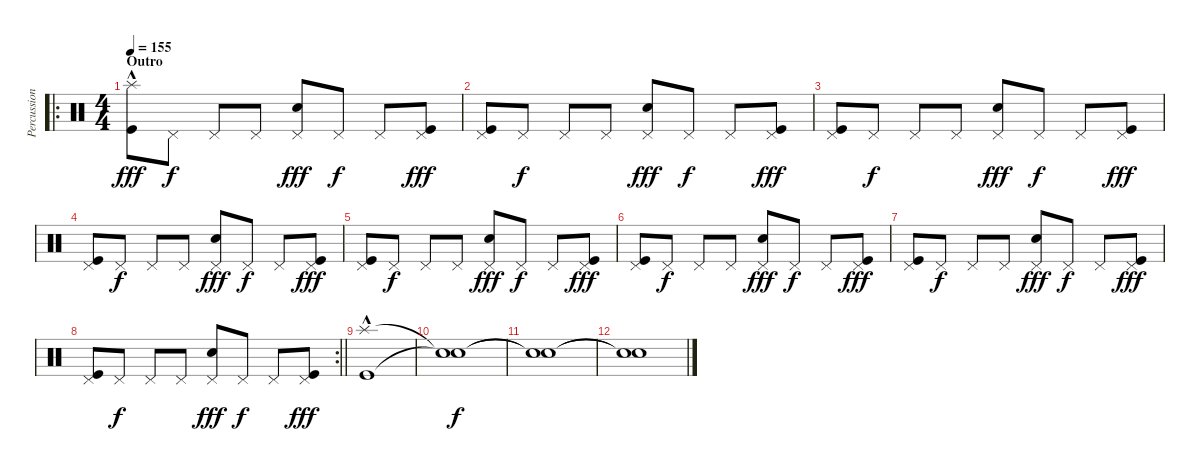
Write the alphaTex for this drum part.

\track ("Percussion" "Percussion") {instrument percussion}
\staff {score}
\articulation defaults
\ro
\ts (4 4)
\section ("" "Outro")
\tempo 155
\clef neutral
\ks c
("Splash (hit)"{hac} "Kick (hit)").8{dy fff} "Pedal Hi-Hat (hit)".8{dy f} "Pedal Hi-Hat (hit)".8 "Pedal Hi-Hat (hit)".8 ("Pedal Hi-Hat (hit)" "Snare (hit) 2").8{dy fff} "Pedal Hi-Hat (hit)".8{dy f} "Pedal Hi-Hat (hit)".8 ("Pedal Hi-Hat (hit)" "Kick (hit)").8{dy fff} |
("Pedal Hi-Hat (hit)" "Kick (hit)").8 "Pedal Hi-Hat (hit)".8{dy f} "Pedal Hi-Hat (hit)".8 "Pedal Hi-Hat (hit)".8 ("Pedal Hi-Hat (hit)" "Snare (hit) 2").8{dy fff} "Pedal Hi-Hat (hit)".8{dy f} "Pedal Hi-Hat (hit)".8 ("Pedal Hi-Hat (hit)" "Kick (hit)").8{dy fff} |
("Pedal Hi-Hat (hit)" "Kick (hit)").8 "Pedal Hi-Hat (hit)".8{dy f} "Pedal Hi-Hat (hit)".8 "Pedal Hi-Hat (hit)".8 ("Pedal Hi-Hat (hit)" "Snare (hit) 2").8{dy fff} "Pedal Hi-Hat (hit)".8{dy f} "Pedal Hi-Hat (hit)".8 ("Pedal Hi-Hat (hit)" "Kick (hit)").8{dy fff} |
("Pedal Hi-Hat (hit)" "Kick (hit)").8 "Pedal Hi-Hat (hit)".8{dy f} "Pedal Hi-Hat (hit)".8 "Pedal Hi-Hat (hit)".8 ("Pedal Hi-Hat (hit)" "Snare (hit) 2").8{dy fff} "Pedal Hi-Hat (hit)".8{dy f} "Pedal Hi-Hat (hit)".8 ("Pedal Hi-Hat (hit)" "Kick (hit)").8{dy fff} |
("Pedal Hi-Hat (hit)" "Kick (hit)").8 "Pedal Hi-Hat (hit)".8{dy f} "Pedal Hi-Hat (hit)".8 "Pedal Hi-Hat (hit)".8 ("Pedal Hi-Hat (hit)" "Snare (hit) 2").8{dy fff} "Pedal Hi-Hat (hit)".8{dy f} "Pedal Hi-Hat (hit)".8 ("Pedal Hi-Hat (hit)" "Kick (hit)").8{dy fff} |
("Pedal Hi-Hat (hit)" "Kick (hit)").8 "Pedal Hi-Hat (hit)".8{dy f} "Pedal Hi-Hat (hit)".8 "Pedal Hi-Hat (hit)".8 ("Pedal Hi-Hat (hit)" "Snare (hit) 2").8{dy fff} "Pedal Hi-Hat (hit)".8{dy f} "Pedal Hi-Hat (hit)".8 ("Pedal Hi-Hat (hit)" "Kick (hit)").8{dy fff} |
("Pedal Hi-Hat (hit)" "Kick (hit)").8 "Pedal Hi-Hat (hit)".8{dy f} "Pedal Hi-Hat (hit)".8 "Pedal Hi-Hat (hit)".8 ("Pedal Hi-Hat (hit)" "Snare (hit) 2").8{dy fff} "Pedal Hi-Hat (hit)".8{dy f} "Pedal Hi-Hat (hit)".8 ("Pedal Hi-Hat (hit)" "Kick (hit)").8{dy fff} |
\rc 2
\barLineRight lightlight
("Pedal Hi-Hat (hit)" "Kick (hit)").8 "Pedal Hi-Hat (hit)".8{dy f} "Pedal Hi-Hat (hit)".8 "Pedal Hi-Hat (hit)".8 ("Pedal Hi-Hat (hit)" "Snare (hit) 2").8{dy fff} "Pedal Hi-Hat (hit)".8{dy f} "Pedal Hi-Hat (hit)".8 ("Pedal Hi-Hat (hit)" "Kick (hit)").8{dy fff} |
("Splash (hit)"{hac} "Kick (hit)"{hac}).1 |
("Snare (hit)"{t} "Snare (hit)"{t}).1{dy f} |
("Snare (hit)"{t} "Snare (hit)"{t}).1 |
("Snare (hit)"{t} "Snare (hit)"{t}).1
